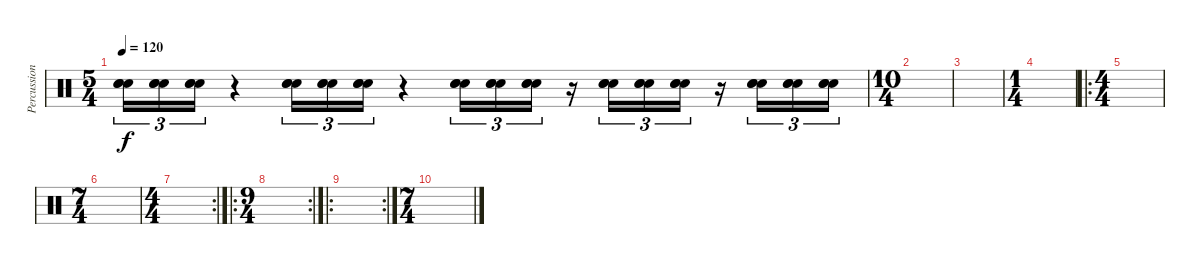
\track ("Percussions" "Percussion") {instrument percussion}
\staff {score}
\articulation defaults
\ts (5 4)
\tempo 120
\clef neutral
\ks c
("Electric Snare (hit)" "Electric Snare (hit)" "Snare (hit) 2").16{tu (3 2) dy f} ("Electric Snare (hit)" "Electric Snare (hit)" "Snare (hit) 2").16{tu (3 2)} ("Electric Snare (hit)" "Electric Snare (hit)" "Snare (hit) 2").16{tu (3 2)} r.4 ("Electric Snare (hit)" "Electric Snare (hit)" "Snare (hit) 2").16{tu (3 2)} ("Electric Snare (hit)" "Electric Snare (hit)" "Snare (hit) 2").16{tu (3 2)} ("Electric Snare (hit)" "Electric Snare (hit)" "Snare (hit) 2").16{tu (3 2)} r.4 ("Electric Snare (hit)" "Electric Snare (hit)" "Snare (hit) 2").16{tu (3 2)} ("Electric Snare (hit)" "Electric Snare (hit)" "Snare (hit) 2").16{tu (3 2)} ("Electric Snare (hit)" "Electric Snare (hit)" "Snare (hit) 2").16{tu (3 2)} r.16 ("Electric Snare (hit)" "Electric Snare (hit)" "Snare (hit) 2").16{tu (3 2)} ("Electric Snare (hit)" "Electric Snare (hit)" "Snare (hit) 2").16{tu (3 2)} ("Electric Snare (hit)" "Electric Snare (hit)" "Snare (hit) 2").16{tu (3 2)} r.16 ("Electric Snare (hit)" "Electric Snare (hit)" "Snare (hit) 2").16{tu (3 2)} ("Electric Snare (hit)" "Electric Snare (hit)" "Snare (hit) 2").16{tu (3 2)} ("Electric Snare (hit)" "Electric Snare (hit)" "Snare (hit) 2").16{tu (3 2)} |
\ts (10 4)
|
|
\ts (1 4)
|
\ro
\ts (4 4)
|
\ts (7 4)
|
\rc 2
\ts (4 4)
|
\ro
\rc 2
\ts (9 4)
|
\ro
\rc 2
|
\ts (7 4)
